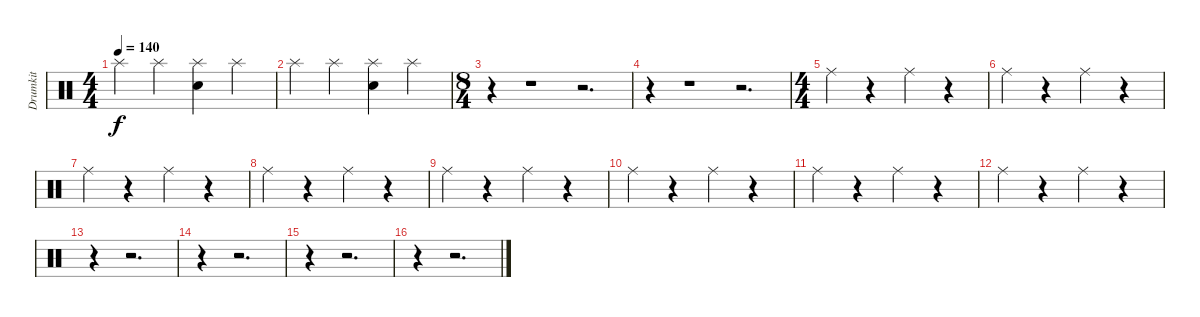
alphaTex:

\track ("Drumkit" "Drumkit") {instrument percussion}
\staff {score}
\articulation defaults
\ts (4 4)
\tempo 140
\clef neutral
\ks c "Splash (hit)".4{dy f} "Splash (hit)".4
("Splash (hit)" "Snare (hit) 2").4 "Splash (hit)".4 |
"Splash (hit)".4 "Splash (hit)".4 ("Splash (hit)" "Snare (hit) 2").4 "Splash (hit)".4 |
\ts (8 4)
r.4 r.1 r.2{d} |
r.4 r.1 r.2{d} |
\ts (4 4)
"Ride (middle)".4 r.4 "Ride (middle)".4 r.4 |
"Ride (middle)".4 r.4 "Ride (middle)".4 r.4 |
"Ride (middle)".4 r.4 "Ride (middle)".4 r.4 |
"Ride (middle)".4 r.4 "Ride (middle)".4 r.4 |
"Ride (middle)".4 r.4 "Ride (middle)".4 r.4 |
"Ride (middle)".4 r.4 "Ride (middle)".4 r.4 |
"Ride (middle)".4 r.4 "Ride (middle)".4 r.4 |
"Ride (middle)".4 r.4 "Ride (middle)".4 r.4 |
r.4 r.2{d} |
r.4 r.2{d} |
r.4 r.2{d} |
r.4 r.2{d}
